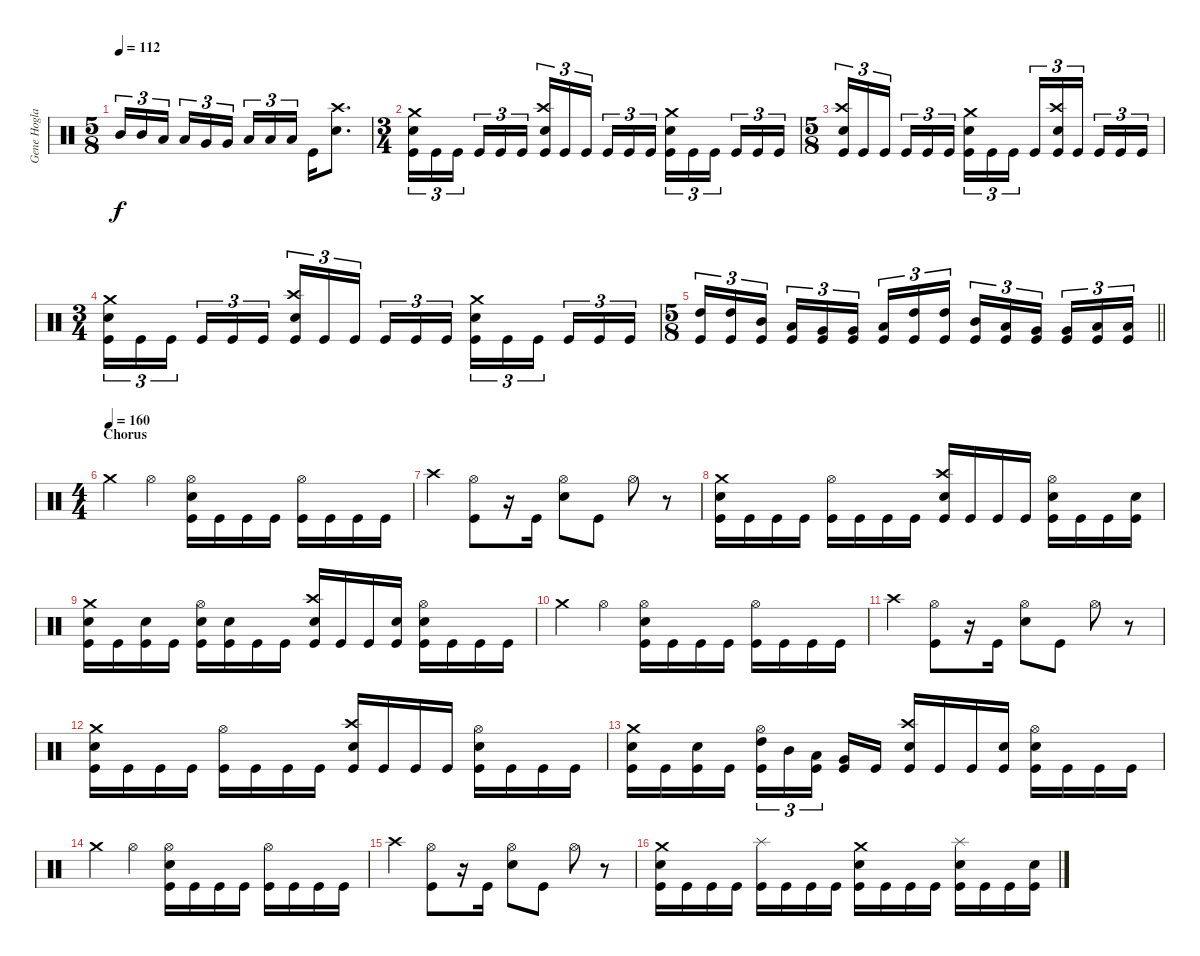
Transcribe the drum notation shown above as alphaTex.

\track ("Gene Hoglan" "Gene Hogla") {instrument percussion}
\staff {score}
\articulation defaults
\ts (5 8)
\tempo 112
\clef neutral
\ks c "Mid Tom (hit)".16{tu (3 2) dy f} "Mid Tom (hit)".16{tu (3 2)} "Low Tom (hit)".16{tu (3 2)} "Low Tom (hit)".16{tu (3 2)} "Very Low Tom (hit)".16{tu (3 2)} "Very Low Tom (hit)".16{tu (3 2)} "Low Floor Tom (hit)".16{tu (3 2)} "Low Floor Tom (hit)".16{tu (3 2)} "Low Floor Tom (hit)".16{tu (3 2)} "Kick (hit)".16
("Crash high (hit)" "Electric Snare (hit)").8{d} |
\ts (3 4)
("Crash medium (hit)" "Electric Snare (hit)" "Kick (hit)").16{tu (3 2)} "Kick (hit)".16{tu (3 2)} "Kick (hit)".16{tu (3 2) beam splitsecondary} "Kick (hit)".16{tu (3 2)} "Kick (hit)".16{tu (3 2)} "Kick (hit)".16{tu (3 2)} ("Crash high (hit)" "Electric Snare (hit)" "Kick (hit)").16{tu (3 2)} "Kick (hit)".16{tu (3 2)} "Kick (hit)".16{tu (3 2) beam splitsecondary} "Kick (hit)".16{tu (3 2)} "Kick (hit)".16{tu (3 2)} "Kick (hit)".16{tu (3 2)} ("Crash medium (hit)" "Electric Snare (hit)" "Kick (hit)").16{tu (3 2)} "Kick (hit)".16{tu (3 2)} "Kick (hit)".16{tu (3 2) beam splitsecondary} "Kick (hit)".16{tu (3 2)} "Kick (hit)".16{tu (3 2)} "Kick (hit)".16{tu (3 2)} |
\ts (5 8)
("Crash high (hit)" "Electric Snare (hit)" "Kick (hit)").16{tu (3 2)} "Kick (hit)".16{tu (3 2)} "Kick (hit)".16{tu (3 2)} "Kick (hit)".16{tu (3 2)} "Kick (hit)".16{tu (3 2)} "Kick (hit)".16{tu (3 2)} ("Crash medium (hit)" "Electric Snare (hit)" "Kick (hit)").16{tu (3 2)} "Kick (hit)".16{tu (3 2)} "Kick (hit)".16{tu (3 2)} "Kick (hit)".16{tu (3 2)} ("Crash high (hit)" "Electric Snare (hit)" "Kick (hit)").16{tu (3 2)} "Kick (hit)".16{tu (3 2)} "Kick (hit)".16{tu (3 2)} "Kick (hit)".16{tu (3 2)} "Kick (hit)".16{tu (3 2)} |
\ts (3 4)
("Crash medium (hit)" "Electric Snare (hit)" "Kick (hit)").16{tu (3 2)} "Kick (hit)".16{tu (3 2)} "Kick (hit)".16{tu (3 2) beam splitsecondary} "Kick (hit)".16{tu (3 2)} "Kick (hit)".16{tu (3 2)} "Kick (hit)".16{tu (3 2)} ("Crash high (hit)" "Electric Snare (hit)" "Kick (hit)").16{tu (3 2)} "Kick (hit)".16{tu (3 2)} "Kick (hit)".16{tu (3 2) beam splitsecondary} "Kick (hit)".16{tu (3 2)} "Kick (hit)".16{tu (3 2)} "Kick (hit)".16{tu (3 2)} ("Crash medium (hit)" "Electric Snare (hit)" "Kick (hit)").16{tu (3 2)} "Kick (hit)".16{tu (3 2)} "Kick (hit)".16{tu (3 2) beam splitsecondary} "Kick (hit)".16{tu (3 2)} "Kick (hit)".16{tu (3 2)} "Kick (hit)".16{tu (3 2)} |
\ts (5 8)
\barLineRight lightlight
("High Tom (hit)" "Kick (hit)").16{tu (3 2)} ("High Tom (hit)" "Kick (hit)").16{tu (3 2)} ("Mid Tom (hit)" "Kick (hit)").16{tu (3 2)} ("Low Tom (hit)" "Kick (hit)").16{tu (3 2)} ("Very Low Tom (hit)" "Kick (hit)").16{tu (3 2)} ("Very Low Tom (hit)" "Kick (hit)").16{tu (3 2)} ("Low Floor Tom (hit)" "Kick (hit)").16{tu (3 2)} ("High Tom (hit)" "Kick (hit)").16{tu (3 2)} ("High Tom (hit)" "Kick (hit)").16{tu (3 2)} ("Mid Tom (hit)" "Kick (hit)").16{tu (3 2)} ("Low Tom (hit)" "Kick (hit)").16{tu (3 2)} ("Very Low Tom (hit)" "Kick (hit)").16{tu (3 2)} ("Very Low Tom (hit)" "Kick (hit)").16{tu (3 2)} ("Low Floor Tom (hit)" "Kick (hit)").16{tu (3 2)} ("Low Floor Tom (hit)" "Kick (hit)").16{tu (3 2)} |
\ts (4 4)
\section ("" "Chorus")
\tempo (160)
"Crash medium (hit)".4 "Hi-Hat (open)".4 ("Hi-Hat (open)" "Electric Snare (hit)" "Kick (hit)").16 "Kick (hit)".16 "Kick (hit)".16 "Kick (hit)".16 ("Hi-Hat (open)" "Kick (hit)").16 "Kick (hit)".16 "Kick (hit)".16 "Kick (hit)".16 |
"Crash high (hit)".4 ("Hi-Hat (open)" "Kick (hit)").8 r.16 "Kick (hit)".16 ("Hi-Hat (open)" "Electric Snare (hit)").8 "Kick (hit)".8 "Hi-Hat (open)".8 r.8 |
("Crash medium (hit)" "Electric Snare (hit)" "Kick (hit)").16 "Kick (hit)".16 "Kick (hit)".16 "Kick (hit)".16 ("Hi-Hat (open)" "Kick (hit)").16 "Kick (hit)".16 "Kick (hit)".16 "Kick (hit)".16 ("Crash high (hit)" "Electric Snare (hit)" "Kick (hit)").16 "Kick (hit)".16 "Kick (hit)".16 "Kick (hit)".16 ("Hi-Hat (open)" "Electric Snare (hit)" "Kick (hit)").16 "Kick (hit)".16 "Kick (hit)".16 ("Electric Snare (hit)" "Kick (hit)").16 |
("Crash medium (hit)" "Electric Snare (hit)" "Kick (hit)").16 "Kick (hit)".16 ("Electric Snare (hit)" "Kick (hit)").16 "Kick (hit)".16 ("Hi-Hat (open)" "Electric Snare (hit)" "Kick (hit)").16 ("Electric Snare (hit)" "Kick (hit)").16 "Kick (hit)".16 "Kick (hit)".16 ("Crash high (hit)" "Electric Snare (hit)" "Kick (hit)").16 "Kick (hit)".16 "Kick (hit)".16 ("Electric Snare (hit)" "Kick (hit)").16 ("Hi-Hat (open)" "Electric Snare (hit)" "Kick (hit)").16 "Kick (hit)".16 "Kick (hit)".16 "Kick (hit)".16 |
"Crash medium (hit)".4 "Hi-Hat (open)".4 ("Hi-Hat (open)" "Electric Snare (hit)" "Kick (hit)").16 "Kick (hit)".16 "Kick (hit)".16 "Kick (hit)".16 ("Hi-Hat (open)" "Kick (hit)").16 "Kick (hit)".16 "Kick (hit)".16 "Kick (hit)".16 |
"Crash high (hit)".4 ("Hi-Hat (open)" "Kick (hit)").8 r.16 "Kick (hit)".16 ("Hi-Hat (open)" "Electric Snare (hit)").8 "Kick (hit)".8 "Hi-Hat (open)".8 r.8 |
("Crash medium (hit)" "Electric Snare (hit)" "Kick (hit)").16 "Kick (hit)".16 "Kick (hit)".16 "Kick (hit)".16 ("Hi-Hat (open)" "Kick (hit)").16 "Kick (hit)".16 "Kick (hit)".16 "Kick (hit)".16 ("Crash high (hit)" "Electric Snare (hit)" "Kick (hit)").16 "Kick (hit)".16 "Kick (hit)".16 "Kick (hit)".16 ("Hi-Hat (open)" "Electric Snare (hit)" "Kick (hit)").16 "Kick (hit)".16 "Kick (hit)".16 "Kick (hit)".16 |
("Crash medium (hit)" "Electric Snare (hit)" "Kick (hit)").16 "Kick (hit)".16 ("Electric Snare (hit)" "Kick (hit)").16 "Kick (hit)".16 ("Hi-Hat (open)" "High Tom (hit)" "Kick (hit)").16{tu (3 2)} "Mid Tom (hit)".16{tu (3 2)} ("Low Tom (hit)" "Kick (hit)").16{tu (3 2) beam splitsecondary} ("Very Low Tom (hit)" "Kick (hit)").16 "Kick (hit)".16 ("Crash high (hit)" "Electric Snare (hit)" "Kick (hit)").16 "Kick (hit)".16 "Kick (hit)".16 ("Electric Snare (hit)" "Kick (hit)").16 ("Hi-Hat (open)" "Electric Snare (hit)" "Kick (hit)").16 "Kick (hit)".16 "Kick (hit)".16 "Kick (hit)".16 |
"Crash medium (hit)".4 "Hi-Hat (open)".4 ("Hi-Hat (open)" "Electric Snare (hit)" "Kick (hit)").16 "Kick (hit)".16 "Kick (hit)".16 "Kick (hit)".16 ("Hi-Hat (open)" "Kick (hit)").16 "Kick (hit)".16 "Kick (hit)".16 "Kick (hit)".16 |
"Crash high (hit)".4 ("Hi-Hat (open)" "Kick (hit)").8 r.16 "Kick (hit)".16 ("Hi-Hat (open)" "Electric Snare (hit)").8 "Kick (hit)".8 "Hi-Hat (open)".8 r.8 |
("Crash medium (hit)" "Electric Snare (hit)" "Kick (hit)").16 "Kick (hit)".16 "Kick (hit)".16 "Kick (hit)".16 ("Splash (hit)" "Kick (hit)").16 "Kick (hit)".16 "Kick (hit)".16 "Kick (hit)".16 ("Crash medium (hit)" "Electric Snare (hit)" "Kick (hit)").16 "Kick (hit)".16 "Kick (hit)".16 "Kick (hit)".16 ("Splash (hit)" "Electric Snare (hit)" "Kick (hit)").16 "Kick (hit)".16 "Kick (hit)".16 ("Electric Snare (hit)" "Kick (hit)").16
